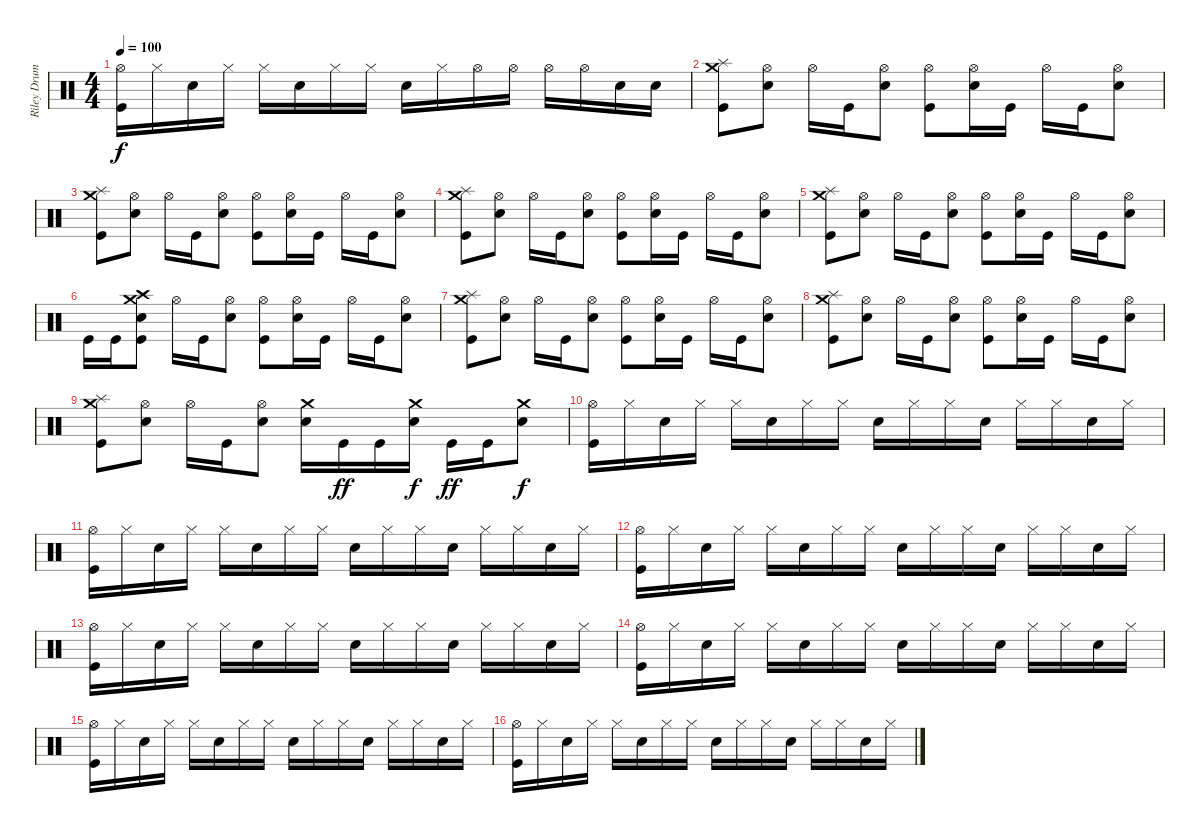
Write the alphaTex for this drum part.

\track ("Riley Drums" "Riley Drum") {instrument percussion}
\staff {score}
\articulation defaults
\ts (4 4)
\tempo 100
\clef neutral
\ks c
("Hi-Hat (open)" "Kick (hit)").16{dy f} "Hi-Hat (closed)".16 "Electric Snare (hit)".16 "Hi-Hat (closed)".16 "Hi-Hat (closed)".16 "Electric Snare (hit)".16 "Hi-Hat (closed)".16 "Hi-Hat (closed)".16 "Electric Snare (hit)".16 "Hi-Hat (closed)".16 "Hi-Hat (open)".16 "Hi-Hat (open)".16 "Hi-Hat (open)".16 "Hi-Hat (open)".16 "Electric Snare (hit)".16 "Electric Snare (hit)".16 |
("Crash medium (hit)" "Splash (hit)" "Kick (hit)").8 ("Hi-Hat (open)" "Electric Snare (hit)").8 "Hi-Hat (open)".16 "Kick (hit)".16 ("Hi-Hat (open)" "Electric Snare (hit)").8 ("Hi-Hat (open)" "Kick (hit)").8 ("Hi-Hat (open)" "Electric Snare (hit)").16 "Kick (hit)".16 "Hi-Hat (open)".16 "Kick (hit)".16 ("Hi-Hat (open)" "Electric Snare (hit)").8 |
("Crash medium (hit)" "Splash (hit)" "Kick (hit)").8 ("Hi-Hat (open)" "Electric Snare (hit)").8 "Hi-Hat (open)".16 "Kick (hit)".16 ("Hi-Hat (open)" "Electric Snare (hit)").8 ("Hi-Hat (open)" "Kick (hit)").8 ("Hi-Hat (open)" "Electric Snare (hit)").16 "Kick (hit)".16 "Hi-Hat (open)".16 "Kick (hit)".16 ("Hi-Hat (open)" "Electric Snare (hit)").8 |
("Crash medium (hit)" "Splash (hit)" "Kick (hit)").8 ("Hi-Hat (open)" "Electric Snare (hit)").8 "Hi-Hat (open)".16 "Kick (hit)".16 ("Hi-Hat (open)" "Electric Snare (hit)").8 ("Hi-Hat (open)" "Kick (hit)").8 ("Hi-Hat (open)" "Electric Snare (hit)").16 "Kick (hit)".16 "Hi-Hat (open)".16 "Kick (hit)".16 ("Hi-Hat (open)" "Electric Snare (hit)").8 |
("Crash medium (hit)" "Splash (hit)" "Kick (hit)").8 ("Hi-Hat (open)" "Electric Snare (hit)").8 "Hi-Hat (open)".16 "Kick (hit)".16 ("Hi-Hat (open)" "Electric Snare (hit)").8 ("Hi-Hat (open)" "Kick (hit)").8 ("Hi-Hat (open)" "Electric Snare (hit)").16 "Kick (hit)".16 "Hi-Hat (open)".16 "Kick (hit)".16 ("Hi-Hat (open)" "Electric Snare (hit)").8 |
"Kick (hit)".16 "Kick (hit)".16 ("Crash medium (hit)" "Crash high (hit)" "Electric Snare (hit)" "Kick (hit)").8 "Hi-Hat (open)".16 "Kick (hit)".16 ("Hi-Hat (open)" "Electric Snare (hit)").8 ("Hi-Hat (open)" "Kick (hit)").8 ("Hi-Hat (open)" "Electric Snare (hit)").16 "Kick (hit)".16 "Hi-Hat (open)".16 "Kick (hit)".16 ("Hi-Hat (open)" "Electric Snare (hit)").8 |
("Crash medium (hit)" "Splash (hit)" "Kick (hit)").8 ("Hi-Hat (open)" "Electric Snare (hit)").8 "Hi-Hat (open)".16 "Kick (hit)".16 ("Hi-Hat (open)" "Electric Snare (hit)").8 ("Hi-Hat (open)" "Kick (hit)").8 ("Hi-Hat (open)" "Electric Snare (hit)").16 "Kick (hit)".16 "Hi-Hat (open)".16 "Kick (hit)".16 ("Hi-Hat (open)" "Electric Snare (hit)").8 |
("Crash medium (hit)" "Splash (hit)" "Kick (hit)").8 ("Hi-Hat (open)" "Electric Snare (hit)").8 "Hi-Hat (open)".16 "Kick (hit)".16 ("Hi-Hat (open)" "Electric Snare (hit)").8 ("Hi-Hat (open)" "Kick (hit)").8 ("Hi-Hat (open)" "Electric Snare (hit)").16 "Kick (hit)".16 "Hi-Hat (open)".16 "Kick (hit)".16 ("Hi-Hat (open)" "Electric Snare (hit)").8 |
("Crash medium (hit)" "Splash (hit)" "Kick (hit)").8 ("Hi-Hat (open)" "Electric Snare (hit)").8 "Hi-Hat (open)".16 "Kick (hit)".16 ("Hi-Hat (open)" "Electric Snare (hit)").8 ("Crash medium (hit)" "Electric Snare (hit)").16 "Kick (hit)".16{dy ff} "Kick (hit)".16 ("Crash medium (hit)" "Electric Snare (hit)").16{dy f} "Kick (hit)".16{dy ff} "Kick (hit)".16 ("Crash medium (hit)" "Electric Snare (hit)").8{dy f} |
("Hi-Hat (open)" "Kick (hit)").16 "Hi-Hat (closed)".16 "Electric Snare (hit)".16 "Hi-Hat (closed)".16 "Hi-Hat (closed)".16 "Electric Snare (hit)".16 "Hi-Hat (closed)".16 "Hi-Hat (closed)".16 "Electric Snare (hit)".16 "Hi-Hat (closed)".16 "Hi-Hat (closed)".16 "Electric Snare (hit)".16 "Hi-Hat (closed)".16 "Hi-Hat (closed)".16 "Electric Snare (hit)".16 "Hi-Hat (closed)".16 |
("Hi-Hat (open)" "Kick (hit)").16 "Hi-Hat (closed)".16 "Electric Snare (hit)".16 "Hi-Hat (closed)".16 "Hi-Hat (closed)".16 "Electric Snare (hit)".16 "Hi-Hat (closed)".16 "Hi-Hat (closed)".16 "Electric Snare (hit)".16 "Hi-Hat (closed)".16 "Hi-Hat (closed)".16 "Electric Snare (hit)".16 "Hi-Hat (closed)".16 "Hi-Hat (closed)".16 "Electric Snare (hit)".16 "Hi-Hat (closed)".16 |
("Hi-Hat (open)" "Kick (hit)").16 "Hi-Hat (closed)".16 "Electric Snare (hit)".16 "Hi-Hat (closed)".16 "Hi-Hat (closed)".16 "Electric Snare (hit)".16 "Hi-Hat (closed)".16 "Hi-Hat (closed)".16 "Electric Snare (hit)".16 "Hi-Hat (closed)".16 "Hi-Hat (closed)".16 "Electric Snare (hit)".16 "Hi-Hat (closed)".16 "Hi-Hat (closed)".16 "Electric Snare (hit)".16 "Hi-Hat (closed)".16 |
("Hi-Hat (open)" "Kick (hit)").16 "Hi-Hat (closed)".16 "Electric Snare (hit)".16 "Hi-Hat (closed)".16 "Hi-Hat (closed)".16 "Electric Snare (hit)".16 "Hi-Hat (closed)".16 "Hi-Hat (closed)".16 "Electric Snare (hit)".16 "Hi-Hat (closed)".16 "Hi-Hat (closed)".16 "Electric Snare (hit)".16 "Hi-Hat (closed)".16 "Hi-Hat (closed)".16 "Electric Snare (hit)".16 "Hi-Hat (closed)".16 |
("Hi-Hat (open)" "Kick (hit)").16 "Hi-Hat (closed)".16 "Electric Snare (hit)".16 "Hi-Hat (closed)".16 "Hi-Hat (closed)".16 "Electric Snare (hit)".16 "Hi-Hat (closed)".16 "Hi-Hat (closed)".16 "Electric Snare (hit)".16 "Hi-Hat (closed)".16 "Hi-Hat (closed)".16 "Electric Snare (hit)".16 "Hi-Hat (closed)".16 "Hi-Hat (closed)".16 "Electric Snare (hit)".16 "Hi-Hat (closed)".16 |
("Hi-Hat (open)" "Kick (hit)").16 "Hi-Hat (closed)".16 "Electric Snare (hit)".16 "Hi-Hat (closed)".16 "Hi-Hat (closed)".16 "Electric Snare (hit)".16 "Hi-Hat (closed)".16 "Hi-Hat (closed)".16 "Electric Snare (hit)".16 "Hi-Hat (closed)".16 "Hi-Hat (closed)".16 "Electric Snare (hit)".16 "Hi-Hat (closed)".16 "Hi-Hat (closed)".16 "Electric Snare (hit)".16 "Hi-Hat (closed)".16 |
("Hi-Hat (open)" "Kick (hit)").16 "Hi-Hat (closed)".16 "Electric Snare (hit)".16 "Hi-Hat (closed)".16 "Hi-Hat (closed)".16 "Electric Snare (hit)".16 "Hi-Hat (closed)".16 "Hi-Hat (closed)".16 "Electric Snare (hit)".16 "Hi-Hat (closed)".16 "Hi-Hat (closed)".16 "Electric Snare (hit)".16 "Hi-Hat (closed)".16 "Hi-Hat (closed)".16 "Electric Snare (hit)".16 "Hi-Hat (closed)".16
